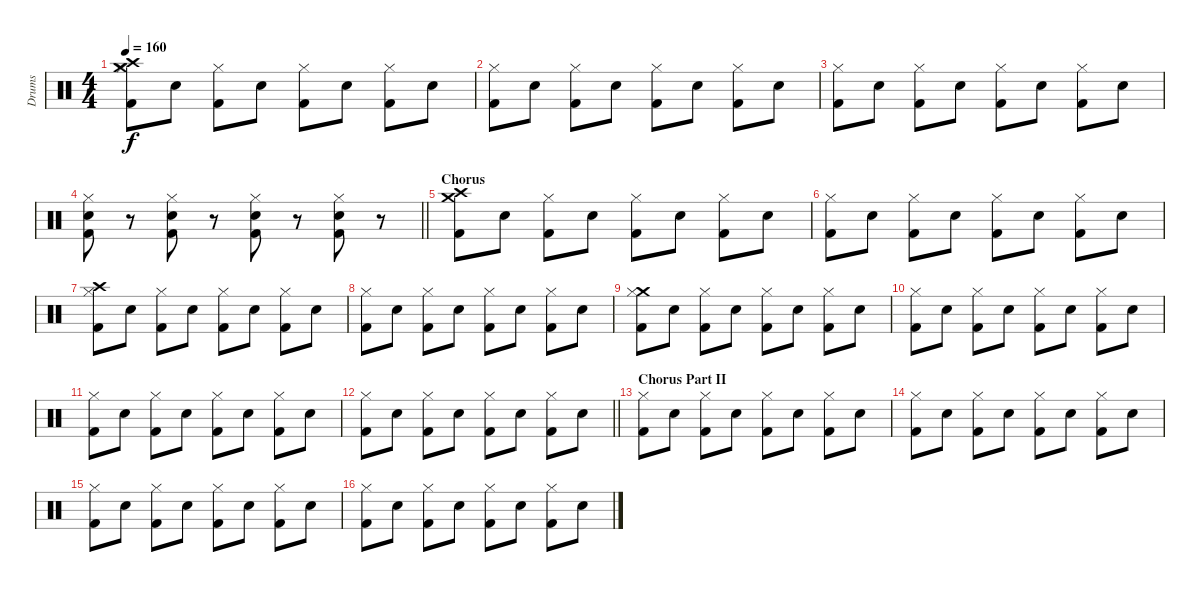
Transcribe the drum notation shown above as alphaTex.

\track ("Drums" "Drums") {instrument percussion}
\staff {score}
\articulation defaults
\ts (4 4)
\tempo 160
\clef neutral
\ks c
("Crash medium (hit)" "Crash high (hit)" "Hi-Hat (closed)" "Kick (hit) 2").8{dy f} "Snare (hit) 2".8 ("Hi-Hat (closed)" "Kick (hit) 2").8 "Snare (hit) 2".8 ("Hi-Hat (closed)" "Kick (hit) 2").8 "Snare (hit) 2".8 ("Hi-Hat (closed)" "Kick (hit) 2").8 "Snare (hit) 2".8 |
("Hi-Hat (closed)" "Kick (hit) 2").8 "Snare (hit) 2".8 ("Hi-Hat (closed)" "Kick (hit) 2").8 "Snare (hit) 2".8 ("Hi-Hat (closed)" "Kick (hit) 2").8 "Snare (hit) 2".8 ("Hi-Hat (closed)" "Kick (hit) 2").8 "Snare (hit) 2".8 |
("Hi-Hat (closed)" "Kick (hit) 2").8 "Snare (hit) 2".8 ("Hi-Hat (closed)" "Kick (hit) 2").8 "Snare (hit) 2".8 ("Hi-Hat (closed)" "Kick (hit) 2").8 "Snare (hit) 2".8 ("Hi-Hat (closed)" "Kick (hit) 2").8 "Snare (hit) 2".8 |
\barLineRight lightlight
("Hi-Hat (closed)" "Snare (hit) 2" "Kick (hit) 2").8 r.8 ("Hi-Hat (closed)" "Snare (hit) 2" "Kick (hit) 2").8 r.8 ("Hi-Hat (closed)" "Snare (hit) 2" "Kick (hit) 2").8 r.8 ("Hi-Hat (closed)" "Snare (hit) 2" "Kick (hit) 2").8 r.8 |
\section ("" "Chorus")
("Crash high (hit)" "Crash medium (hit)" "Kick (hit) 2").8 "Snare (hit) 2".8 ("Hi-Hat (closed)" "Kick (hit) 2").8 "Snare (hit) 2".8 ("Hi-Hat (closed)" "Kick (hit) 2").8 "Snare (hit) 2".8 ("Hi-Hat (closed)" "Kick (hit) 2").8 "Snare (hit) 2".8 |
("Hi-Hat (closed)" "Kick (hit) 2").8 "Snare (hit) 2".8 ("Hi-Hat (closed)" "Kick (hit) 2").8 "Snare (hit) 2".8 ("Hi-Hat (closed)" "Kick (hit) 2").8 "Snare (hit) 2".8 ("Hi-Hat (closed)" "Kick (hit) 2").8 "Snare (hit) 2".8 |
("Crash high (hit)" "Hi-Hat (closed)" "Kick (hit) 2").8 "Snare (hit) 2".8 ("Hi-Hat (closed)" "Kick (hit) 2").8 "Snare (hit) 2".8 ("Hi-Hat (closed)" "Kick (hit) 2").8 "Snare (hit) 2".8 ("Hi-Hat (closed)" "Kick (hit) 2").8 "Snare (hit) 2".8 |
("Hi-Hat (closed)" "Kick (hit) 2").8 "Snare (hit) 2".8 ("Hi-Hat (closed)" "Kick (hit) 2").8 "Snare (hit) 2".8 ("Hi-Hat (closed)" "Kick (hit) 2").8 "Snare (hit) 2".8 ("Hi-Hat (closed)" "Kick (hit) 2").8 "Snare (hit) 2".8 |
("Crash medium (hit)" "Hi-Hat (closed)" "Kick (hit) 2").8 "Snare (hit) 2".8 ("Hi-Hat (closed)" "Kick (hit) 2").8 "Snare (hit) 2".8 ("Hi-Hat (closed)" "Kick (hit) 2").8 "Snare (hit) 2".8 ("Hi-Hat (closed)" "Kick (hit) 2").8 "Snare (hit) 2".8 |
("Hi-Hat (closed)" "Kick (hit) 2").8 "Snare (hit) 2".8 ("Hi-Hat (closed)" "Kick (hit) 2").8 "Snare (hit) 2".8 ("Hi-Hat (closed)" "Kick (hit) 2").8 "Snare (hit) 2".8 ("Hi-Hat (closed)" "Kick (hit) 2").8 "Snare (hit) 2".8 |
("Hi-Hat (closed)" "Kick (hit) 2").8 "Snare (hit) 2".8 ("Hi-Hat (closed)" "Kick (hit) 2").8 "Snare (hit) 2".8 ("Hi-Hat (closed)" "Kick (hit) 2").8 "Snare (hit) 2".8 ("Hi-Hat (closed)" "Kick (hit) 2").8 "Snare (hit) 2".8 |
\barLineRight lightlight
("Hi-Hat (closed)" "Kick (hit) 2").8 "Snare (hit) 2".8 ("Hi-Hat (closed)" "Kick (hit) 2").8 "Snare (hit) 2".8 ("Hi-Hat (closed)" "Kick (hit) 2").8 "Snare (hit) 2".8 ("Hi-Hat (closed)" "Kick (hit) 2").8 "Snare (hit) 2".8 |
\section ("" "Chorus Part II")
("Hi-Hat (closed)" "Kick (hit) 2").8 "Snare (hit) 2".8 ("Hi-Hat (closed)" "Kick (hit) 2").8 "Snare (hit) 2".8 ("Hi-Hat (closed)" "Kick (hit) 2").8 "Snare (hit) 2".8 ("Hi-Hat (closed)" "Kick (hit) 2").8 "Snare (hit) 2".8 |
("Hi-Hat (closed)" "Kick (hit) 2").8 "Snare (hit) 2".8 ("Hi-Hat (closed)" "Kick (hit) 2").8 "Snare (hit) 2".8 ("Hi-Hat (closed)" "Kick (hit) 2").8 "Snare (hit) 2".8 ("Hi-Hat (closed)" "Kick (hit) 2").8 "Snare (hit) 2".8 |
("Hi-Hat (closed)" "Kick (hit) 2").8 "Snare (hit) 2".8 ("Hi-Hat (closed)" "Kick (hit) 2").8 "Snare (hit) 2".8 ("Hi-Hat (closed)" "Kick (hit) 2").8 "Snare (hit) 2".8 ("Hi-Hat (closed)" "Kick (hit) 2").8 "Snare (hit) 2".8 |
("Hi-Hat (closed)" "Kick (hit) 2").8 "Snare (hit) 2".8 ("Hi-Hat (closed)" "Kick (hit) 2").8 "Snare (hit) 2".8 ("Hi-Hat (closed)" "Kick (hit) 2").8 "Snare (hit) 2".8 ("Hi-Hat (closed)" "Kick (hit) 2").8 "Snare (hit) 2".8
